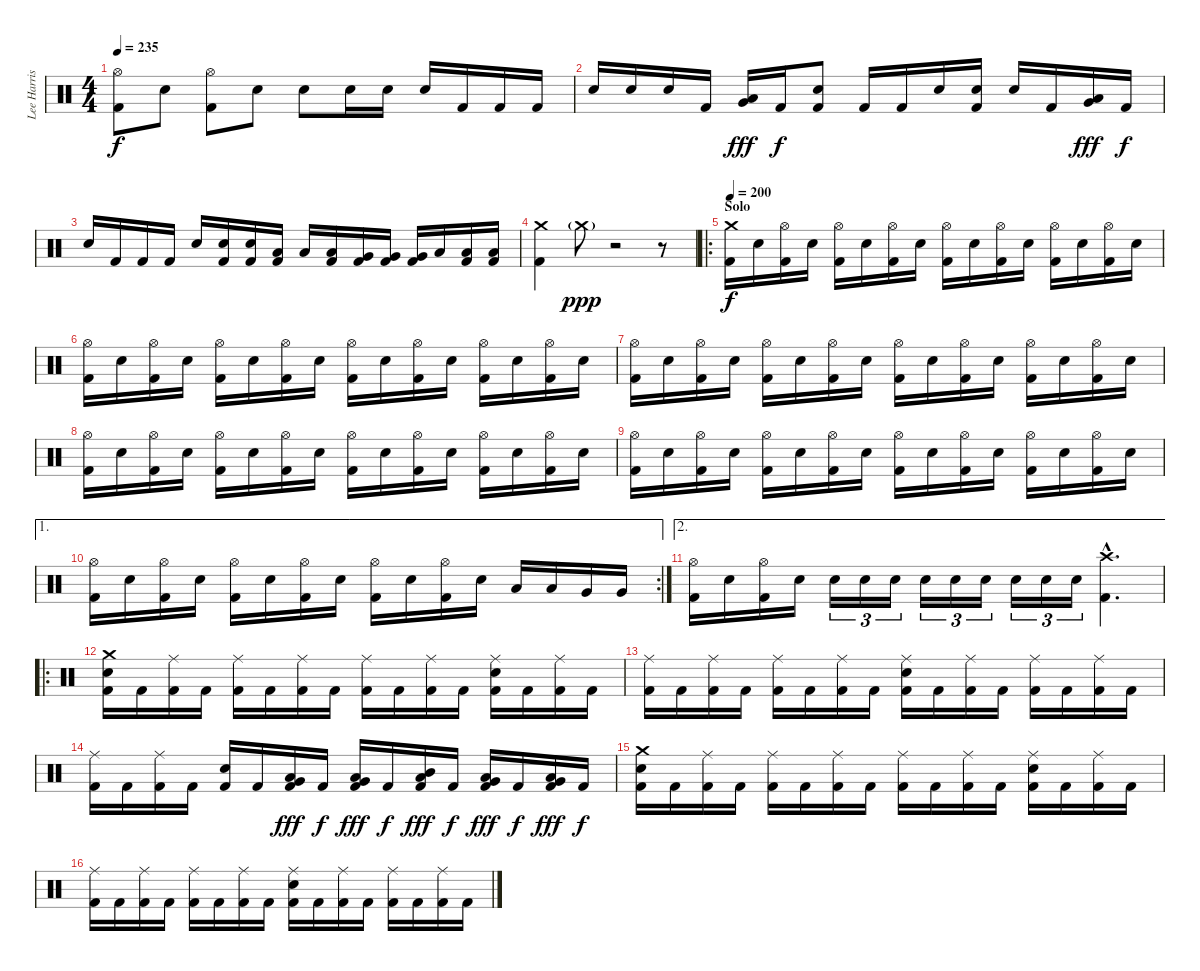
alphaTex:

\track ("Lee Harrison" "Lee Harris") {instrument percussion}
\staff {score}
\articulation defaults
\ts (4 4)
\tempo 235
\clef neutral
\ks c
("Hi-Hat (open)" "Kick (hit) 2").8{dy f} "Electric Snare (hit)".8 ("Hi-Hat (open)" "Kick (hit) 2").8 "Electric Snare (hit)".8 "Electric Snare (hit)".8 "Electric Snare (hit)".16 "Electric Snare (hit)".16 "Electric Snare (hit)".16 "Kick (hit) 2".16 "Kick (hit) 2".16 "Kick (hit) 2".16 |
"Electric Snare (hit)".16 "Electric Snare (hit)".16 "Electric Snare (hit)".16 "Kick (hit) 2".16 ("Very Low Tom (hit)" "Low Floor Tom (hit)").16{dy fff} "Kick (hit) 2".16{dy f} ("Electric Snare (hit)" "Kick (hit) 2").8 "Kick (hit) 2".16 "Kick (hit) 2".16 "Electric Snare (hit)".16 ("Electric Snare (hit)" "Kick (hit) 2").16 "Electric Snare (hit)".16 "Kick (hit) 2".16 ("Very Low Tom (hit)" "Low Floor Tom (hit)").16{dy fff} "Kick (hit) 2".16{dy f} |
"Electric Snare (hit)".16 "Kick (hit) 2".16 "Kick (hit) 2".16 "Kick (hit) 2".16 "Electric Snare (hit)".16 ("Electric Snare (hit)" "Kick (hit) 2").16 ("Electric Snare (hit)" "Kick (hit) 2").16 ("Low Tom (hit)" "Kick (hit) 2").16 "Low Tom (hit)".16 ("Low Tom (hit)" "Kick (hit) 2").16 ("Very Low Tom (hit)" "Kick (hit) 2").16 ("Very Low Tom (hit)" "Kick (hit) 2").16 ("Very Low Tom (hit)" "Kick (hit) 2").16 "Low Floor Tom (hit)".16 ("Low Floor Tom (hit)" "Kick (hit) 2").16 ("Low Floor Tom (hit)" "Kick (hit) 2").16 |
("Crash medium (hit)" "Kick (hit) 2").4 "Crash medium (hit)"{g}.8{dy ppp} r.2 r.8 |
\ro
\section ("" "Solo")
\tempo 200
("Crash medium (hit)" "Kick (hit) 2").16{dy f} "Electric Snare (hit)".16 ("Hi-Hat (open)" "Kick (hit) 2").16 "Electric Snare (hit)".16 ("Hi-Hat (open)" "Kick (hit) 2").16 "Electric Snare (hit)".16 ("Hi-Hat (open)" "Kick (hit) 2").16 "Electric Snare (hit)".16 ("Hi-Hat (open)" "Kick (hit) 2").16 "Electric Snare (hit)".16 ("Hi-Hat (open)" "Kick (hit) 2").16 "Electric Snare (hit)".16 ("Hi-Hat (open)" "Kick (hit) 2").16 "Electric Snare (hit)".16 ("Hi-Hat (open)" "Kick (hit) 2").16 "Electric Snare (hit)".16 |
("Hi-Hat (open)" "Kick (hit) 2").16 "Electric Snare (hit)".16 ("Hi-Hat (open)" "Kick (hit) 2").16 "Electric Snare (hit)".16 ("Hi-Hat (open)" "Kick (hit) 2").16 "Electric Snare (hit)".16 ("Hi-Hat (open)" "Kick (hit) 2").16 "Electric Snare (hit)".16 ("Hi-Hat (open)" "Kick (hit) 2").16 "Electric Snare (hit)".16 ("Hi-Hat (open)" "Kick (hit) 2").16 "Electric Snare (hit)".16 ("Hi-Hat (open)" "Kick (hit) 2").16 "Electric Snare (hit)".16 ("Hi-Hat (open)" "Kick (hit) 2").16 "Electric Snare (hit)".16 |
("Hi-Hat (open)" "Kick (hit) 2").16 "Electric Snare (hit)".16 ("Hi-Hat (open)" "Kick (hit) 2").16 "Electric Snare (hit)".16 ("Hi-Hat (open)" "Kick (hit) 2").16 "Electric Snare (hit)".16 ("Hi-Hat (open)" "Kick (hit) 2").16 "Electric Snare (hit)".16 ("Hi-Hat (open)" "Kick (hit) 2").16 "Electric Snare (hit)".16 ("Hi-Hat (open)" "Kick (hit) 2").16 "Electric Snare (hit)".16 ("Hi-Hat (open)" "Kick (hit) 2").16 "Electric Snare (hit)".16 ("Hi-Hat (open)" "Kick (hit) 2").16 "Electric Snare (hit)".16 |
("Hi-Hat (open)" "Kick (hit) 2").16 "Electric Snare (hit)".16 ("Hi-Hat (open)" "Kick (hit) 2").16 "Electric Snare (hit)".16 ("Hi-Hat (open)" "Kick (hit) 2").16 "Electric Snare (hit)".16 ("Hi-Hat (open)" "Kick (hit) 2").16 "Electric Snare (hit)".16 ("Hi-Hat (open)" "Kick (hit) 2").16 "Electric Snare (hit)".16 ("Hi-Hat (open)" "Kick (hit) 2").16 "Electric Snare (hit)".16 ("Hi-Hat (open)" "Kick (hit) 2").16 "Electric Snare (hit)".16 ("Hi-Hat (open)" "Kick (hit) 2").16 "Electric Snare (hit)".16 |
("Hi-Hat (open)" "Kick (hit) 2").16 "Electric Snare (hit)".16 ("Hi-Hat (open)" "Kick (hit) 2").16 "Electric Snare (hit)".16 ("Hi-Hat (open)" "Kick (hit) 2").16 "Electric Snare (hit)".16 ("Hi-Hat (open)" "Kick (hit) 2").16 "Electric Snare (hit)".16 ("Hi-Hat (open)" "Kick (hit) 2").16 "Electric Snare (hit)".16 ("Hi-Hat (open)" "Kick (hit) 2").16 "Electric Snare (hit)".16 ("Hi-Hat (open)" "Kick (hit) 2").16 "Electric Snare (hit)".16 ("Hi-Hat (open)" "Kick (hit) 2").16 "Electric Snare (hit)".16 |
\ae 1
\rc 2
("Hi-Hat (open)" "Kick (hit) 2").16 "Electric Snare (hit)".16 ("Hi-Hat (open)" "Kick (hit) 2").16 "Electric Snare (hit)".16 ("Hi-Hat (open)" "Kick (hit) 2").16 "Electric Snare (hit)".16 ("Hi-Hat (open)" "Kick (hit) 2").16 "Electric Snare (hit)".16 ("Hi-Hat (open)" "Kick (hit) 2").16 "Electric Snare (hit)".16 ("Hi-Hat (open)" "Kick (hit) 2").16 "Electric Snare (hit)".16 "Low Tom (hit)".16 "Low Tom (hit)".16 "Very Low Tom (hit)".16 "Very Low Tom (hit)".16 |
\ae 2
("Hi-Hat (open)" "Kick (hit) 2").16 "Electric Snare (hit)".16 ("Hi-Hat (open)" "Kick (hit) 2").16 "Electric Snare (hit)".16 "Electric Snare (hit)".16{tu (3 2)} "Electric Snare (hit)".16{tu (3 2)} "Electric Snare (hit)".16{tu (3 2)} "Electric Snare (hit)".16{tu (3 2)} "Electric Snare (hit)".16{tu (3 2)} "Electric Snare (hit)".16{tu (3 2)} "Electric Snare (hit)".16{tu (3 2)} "Electric Snare (hit)".16{tu (3 2)} "Electric Snare (hit)".16{tu (3 2)} ("Crash high (hit)"{hac} "Kick (hit) 2"{hac}).4{d} |
\ro
("Crash medium (hit)" "Electric Snare (hit)" "Kick (hit) 2").16 "Kick (hit) 2".16 ("Ride (middle)" "Kick (hit) 2").16 "Kick (hit) 2".16 ("Ride (middle)" "Kick (hit) 2").16 "Kick (hit) 2".16 ("Ride (middle)" "Kick (hit) 2").16 "Kick (hit) 2".16 ("Ride (middle)" "Kick (hit) 2").16 "Kick (hit) 2".16 ("Ride (middle)" "Kick (hit) 2").16 "Kick (hit) 2".16 ("Ride (middle)" "Electric Snare (hit)" "Kick (hit) 2").16 "Kick (hit) 2".16 ("Ride (middle)" "Kick (hit) 2").16 "Kick (hit) 2".16 |
("Ride (middle)" "Kick (hit) 2").16 "Kick (hit) 2".16 ("Ride (middle)" "Kick (hit) 2").16 "Kick (hit) 2".16 ("Ride (middle)" "Kick (hit) 2").16 "Kick (hit) 2".16 ("Ride (middle)" "Kick (hit) 2").16 "Kick (hit) 2".16 ("Ride (middle)" "Electric Snare (hit)" "Kick (hit) 2").16 "Kick (hit) 2".16 ("Ride (middle)" "Kick (hit) 2").16 "Kick (hit) 2".16 ("Ride (middle)" "Kick (hit) 2").16 "Kick (hit) 2".16 ("Ride (middle)" "Kick (hit) 2").16 "Kick (hit) 2".16 |
("Ride (middle)" "Kick (hit) 2").16 "Kick (hit) 2".16 ("Ride (middle)" "Kick (hit) 2").16 "Kick (hit) 2".16 ("Electric Snare (hit)" "Kick (hit) 2").16 "Kick (hit) 2".16 ("Low Tom (hit)" "Very Low Tom (hit)" "Kick (hit) 2").16{dy fff} "Kick (hit) 2".16{dy f} ("Very Low Tom (hit)" "Low Floor Tom (hit)" "Kick (hit) 2").16{dy fff} "Kick (hit) 2".16{dy f} ("Mid Tom (hit)" "Low Tom (hit)" "Kick (hit) 2").16{dy fff} "Kick (hit) 2".16{dy f} ("Low Tom (hit)" "Very Low Tom (hit)" "Kick (hit) 2").16{dy fff} "Kick (hit) 2".16{dy f} ("Very Low Tom (hit)" "Low Floor Tom (hit)" "Kick (hit) 2").16{dy fff} "Kick (hit) 2".16{dy f} |
("Crash medium (hit)" "Electric Snare (hit)" "Kick (hit) 2").16 "Kick (hit) 2".16 ("Ride (middle)" "Kick (hit) 2").16 "Kick (hit) 2".16 ("Ride (middle)" "Kick (hit) 2").16 "Kick (hit) 2".16 ("Ride (middle)" "Kick (hit) 2").16 "Kick (hit) 2".16 ("Ride (middle)" "Kick (hit) 2").16 "Kick (hit) 2".16 ("Ride (middle)" "Kick (hit) 2").16 "Kick (hit) 2".16 ("Ride (middle)" "Electric Snare (hit)" "Kick (hit) 2").16 "Kick (hit) 2".16 ("Ride (middle)" "Kick (hit) 2").16 "Kick (hit) 2".16 |
("Ride (middle)" "Kick (hit) 2").16 "Kick (hit) 2".16 ("Ride (middle)" "Kick (hit) 2").16 "Kick (hit) 2".16 ("Ride (middle)" "Kick (hit) 2").16 "Kick (hit) 2".16 ("Ride (middle)" "Kick (hit) 2").16 "Kick (hit) 2".16 ("Ride (middle)" "Electric Snare (hit)" "Kick (hit) 2").16 "Kick (hit) 2".16 ("Ride (middle)" "Kick (hit) 2").16 "Kick (hit) 2".16 ("Ride (middle)" "Kick (hit) 2").16 "Kick (hit) 2".16 ("Ride (middle)" "Kick (hit) 2").16 "Kick (hit) 2".16
